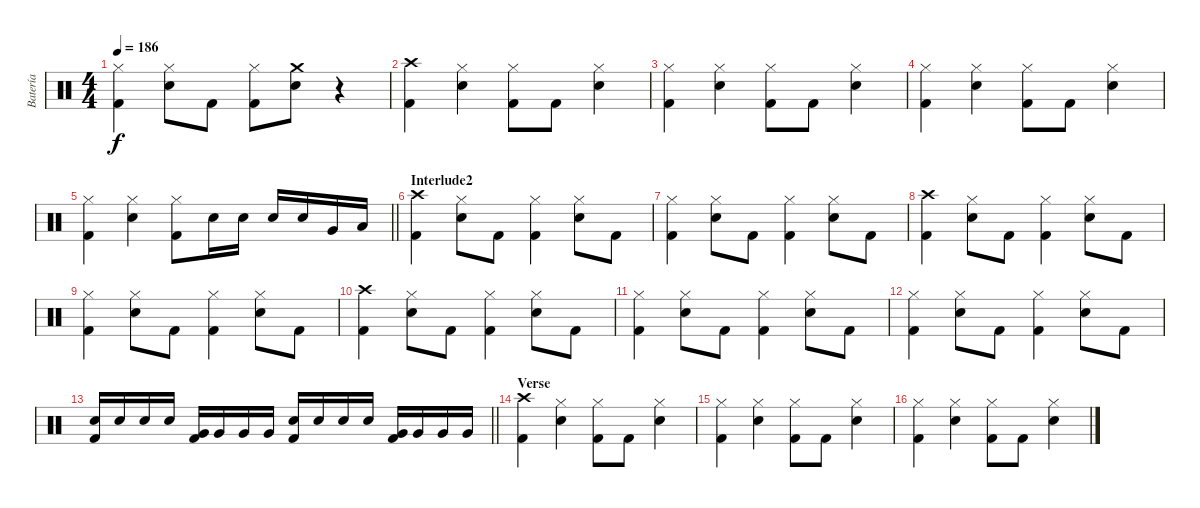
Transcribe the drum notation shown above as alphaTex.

\track ("Batería" "Batería") {instrument percussion}
\staff {score}
\articulation defaults
\ts (4 4)
\tempo 186
\clef neutral
\ks c
("Hi-Hat (closed)" "Kick (hit) 2").4{dy f} ("Hi-Hat (closed)" "Snare (hit) 2").8 "Kick (hit) 2".8 ("Hi-Hat (closed)" "Kick (hit) 2").8 ("Crash medium (hit)" "Snare (hit) 2").8 r.4 |
("Crash high (hit)" "Kick (hit) 2").4 ("Hi-Hat (closed)" "Snare (hit) 2").4 ("Hi-Hat (closed)" "Kick (hit) 2").8 "Kick (hit) 2".8 ("Hi-Hat (closed)" "Snare (hit) 2").4 |
("Hi-Hat (closed)" "Kick (hit) 2").4 ("Hi-Hat (closed)" "Snare (hit) 2").4 ("Hi-Hat (closed)" "Kick (hit) 2").8 "Kick (hit) 2".8 ("Hi-Hat (closed)" "Snare (hit) 2").4 |
("Hi-Hat (closed)" "Kick (hit) 2").4 ("Hi-Hat (closed)" "Snare (hit) 2").4 ("Hi-Hat (closed)" "Kick (hit) 2").8 "Kick (hit) 2".8 ("Hi-Hat (closed)" "Snare (hit) 2").4 |
\barLineRight lightlight
("Hi-Hat (closed)" "Kick (hit) 2").4 ("Hi-Hat (closed)" "Snare (hit) 2").4 ("Hi-Hat (closed)" "Kick (hit) 2").8 "Snare (hit) 2".16 "Snare (hit) 2".16 "Snare (hit) 2".16 "Snare (hit) 2".16 "Very Low Tom (hit)".16 "Low Floor Tom (hit)".16 |
\section ("" "Interlude2")
("Crash high (hit)" "Kick (hit) 2").4 ("Hi-Hat (closed)" "Snare (hit) 2").8 "Kick (hit) 2".8 ("Hi-Hat (closed)" "Kick (hit) 2").4 ("Hi-Hat (closed)" "Snare (hit) 2").8 "Kick (hit) 2".8 |
("Hi-Hat (closed)" "Kick (hit) 2").4 ("Hi-Hat (closed)" "Snare (hit) 2").8 "Kick (hit) 2".8 ("Hi-Hat (closed)" "Kick (hit) 2").4 ("Hi-Hat (closed)" "Snare (hit) 2").8 "Kick (hit) 2".8 |
("Crash high (hit)" "Kick (hit) 2").4 ("Hi-Hat (closed)" "Snare (hit) 2").8 "Kick (hit) 2".8 ("Hi-Hat (closed)" "Kick (hit) 2").4 ("Hi-Hat (closed)" "Snare (hit) 2").8 "Kick (hit) 2".8 |
("Hi-Hat (closed)" "Kick (hit) 2").4 ("Hi-Hat (closed)" "Snare (hit) 2").8 "Kick (hit) 2".8 ("Hi-Hat (closed)" "Kick (hit) 2").4 ("Hi-Hat (closed)" "Snare (hit) 2").8 "Kick (hit) 2".8 |
("Crash high (hit)" "Kick (hit) 2").4 ("Hi-Hat (closed)" "Snare (hit) 2").8 "Kick (hit) 2".8 ("Hi-Hat (closed)" "Kick (hit) 2").4 ("Hi-Hat (closed)" "Snare (hit) 2").8 "Kick (hit) 2".8 |
("Hi-Hat (closed)" "Kick (hit) 2").4 ("Hi-Hat (closed)" "Snare (hit) 2").8 "Kick (hit) 2".8 ("Hi-Hat (closed)" "Kick (hit) 2").4 ("Hi-Hat (closed)" "Snare (hit) 2").8 "Kick (hit) 2".8 |
("Hi-Hat (closed)" "Kick (hit) 2").4 ("Hi-Hat (closed)" "Snare (hit) 2").8 "Kick (hit) 2".8 ("Hi-Hat (closed)" "Kick (hit) 2").4 ("Hi-Hat (closed)" "Snare (hit) 2").8 "Kick (hit) 2".8 |
\barLineRight lightlight
("Snare (hit) 2" "Kick (hit) 2").16 "Snare (hit) 2".16 "Snare (hit) 2".16 "Snare (hit) 2".16 ("Very Low Tom (hit)" "Kick (hit) 2").16 "Very Low Tom (hit)".16 "Very Low Tom (hit)".16 "Very Low Tom (hit)".16 ("Snare (hit) 2" "Kick (hit) 2").16 "Snare (hit) 2".16 "Snare (hit) 2".16 "Snare (hit) 2".16 ("Very Low Tom (hit)" "Kick (hit) 2").16 "Very Low Tom (hit)".16 "Very Low Tom (hit)".16 "Very Low Tom (hit)".16 |
\section ("" "Verse")
("Crash high (hit)" "Kick (hit) 2").4 ("Hi-Hat (closed)" "Snare (hit) 2").4 ("Hi-Hat (closed)" "Kick (hit) 2").8 "Kick (hit) 2".8 ("Hi-Hat (closed)" "Snare (hit) 2").4 |
("Hi-Hat (closed)" "Kick (hit) 2").4 ("Hi-Hat (closed)" "Snare (hit) 2").4 ("Hi-Hat (closed)" "Kick (hit) 2").8 "Kick (hit) 2".8 ("Hi-Hat (closed)" "Snare (hit) 2").4 |
("Hi-Hat (closed)" "Kick (hit) 2").4 ("Hi-Hat (closed)" "Snare (hit) 2").4 ("Hi-Hat (closed)" "Kick (hit) 2").8 "Kick (hit) 2".8 ("Hi-Hat (closed)" "Snare (hit) 2").4
